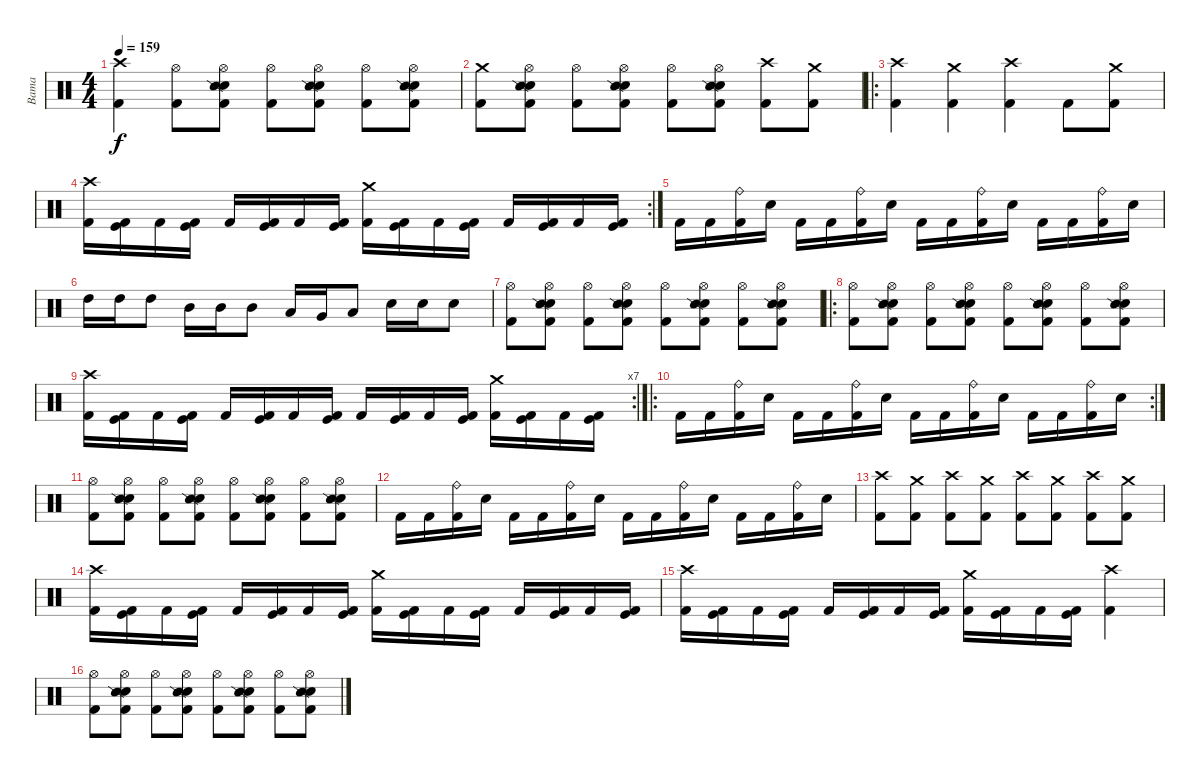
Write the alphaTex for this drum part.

\track ("Bama" "Bama") {instrument percussion}
\staff {score}
\articulation defaults
\ts (4 4)
\tempo 159
\clef neutral
\ks c
("Crash high (hit)" "Kick (hit) 2").4{dy f} ("Hi-Hat (open)" "Kick (hit) 2").8 ("Hi-Hat (open)" "Electric Snare (hit)" "Snare (side stick) 2" "Kick (hit) 2").8 ("Hi-Hat (open)" "Kick (hit) 2").8 ("Hi-Hat (open)" "Electric Snare (hit)" "Snare (side stick) 2" "Kick (hit) 2").8 ("Hi-Hat (open)" "Kick (hit) 2").8 ("Hi-Hat (open)" "Electric Snare (hit)" "Snare (side stick) 2" "Kick (hit) 2").8 |
("Crash medium (hit)" "Kick (hit) 2").8 ("Hi-Hat (open)" "Electric Snare (hit)" "Snare (side stick) 2" "Kick (hit) 2").8 ("Hi-Hat (open)" "Kick (hit) 2").8 ("Hi-Hat (open)" "Electric Snare (hit)" "Snare (side stick) 2" "Kick (hit) 2").8 ("Hi-Hat (open)" "Kick (hit) 2").8 ("Hi-Hat (open)" "Electric Snare (hit)" "Snare (side stick) 2" "Kick (hit) 2").8 ("Crash high (hit)" "Kick (hit) 2").8 ("Crash medium (hit)" "Kick (hit) 2").8 |
\ro
("Crash high (hit)" "Kick (hit) 2").4 ("Crash medium (hit)" "Kick (hit) 2").4 ("Crash high (hit)" "Kick (hit) 2").4 "Kick (hit) 2".8 ("Crash medium (hit)" "Kick (hit) 2").8 |
\rc 2
("Crash high (hit)" "Kick (hit) 2").16 ("Kick (hit)" "Kick (hit) 2").16 "Kick (hit) 2".16 ("Kick (hit)" "Kick (hit) 2").16 "Kick (hit) 2".16 ("Kick (hit)" "Kick (hit) 2").16 "Kick (hit) 2".16 ("Kick (hit)" "Kick (hit) 2").16 ("Crash medium (hit)" "Kick (hit) 2").16 ("Kick (hit)" "Kick (hit) 2").16 "Kick (hit) 2".16 ("Kick (hit)" "Kick (hit) 2").16 "Kick (hit) 2".16 ("Kick (hit)" "Kick (hit) 2").16 "Kick (hit) 2".16 ("Kick (hit)" "Kick (hit) 2").16 |
"Kick (hit) 2".16 "Kick (hit) 2".16 ("Ride (bell)" "Kick (hit) 2").16 "Electric Snare (hit)".16 "Kick (hit) 2".16 "Kick (hit) 2".16 ("Ride (bell)" "Kick (hit) 2").16 "Electric Snare (hit)".16 "Kick (hit) 2".16 "Kick (hit) 2".16 ("Ride (bell)" "Kick (hit) 2").16 "Electric Snare (hit)".16 "Kick (hit) 2".16 "Kick (hit) 2".16 ("Ride (bell)" "Kick (hit) 2").16 "Electric Snare (hit)".16 |
"High Tom (hit)".16 "High Tom (hit)".16 "High Tom (hit)".8 "Mid Tom (hit)".16 "Mid Tom (hit)".16 "Mid Tom (hit)".8 "Low Tom (hit)".16 "Very Low Tom (hit)".16 "Low Floor Tom (hit)".8 "Electric Snare (hit)".16 "Electric Snare (hit)".16 "Electric Snare (hit)".8 |
("Hi-Hat (open)" "Kick (hit) 2").8 ("Hi-Hat (open)" "Electric Snare (hit)" "Snare (side stick) 2" "Kick (hit) 2").8 ("Hi-Hat (open)" "Kick (hit) 2").8 ("Hi-Hat (open)" "Electric Snare (hit)" "Snare (side stick) 2" "Kick (hit) 2").8 ("Hi-Hat (open)" "Kick (hit) 2").8 ("Hi-Hat (open)" "Electric Snare (hit)" "Snare (side stick) 2" "Kick (hit) 2").8 ("Hi-Hat (open)" "Kick (hit) 2").8 ("Hi-Hat (open)" "Electric Snare (hit)" "Snare (side stick) 2" "Kick (hit) 2").8 |
\ro
("Hi-Hat (open)" "Kick (hit) 2").8 ("Hi-Hat (open)" "Electric Snare (hit)" "Snare (side stick) 2" "Kick (hit) 2").8 ("Hi-Hat (open)" "Kick (hit) 2").8 ("Hi-Hat (open)" "Electric Snare (hit)" "Snare (side stick) 2" "Kick (hit) 2").8 ("Hi-Hat (open)" "Kick (hit) 2").8 ("Hi-Hat (open)" "Electric Snare (hit)" "Snare (side stick) 2" "Kick (hit) 2").8 ("Hi-Hat (open)" "Kick (hit) 2").8 ("Hi-Hat (open)" "Electric Snare (hit)" "Snare (side stick) 2" "Kick (hit) 2").8 |
\rc 7
("Crash high (hit)" "Kick (hit) 2").16 ("Kick (hit)" "Kick (hit) 2").16 "Kick (hit) 2".16 ("Kick (hit)" "Kick (hit) 2").16 "Kick (hit) 2".16 ("Kick (hit)" "Kick (hit) 2").16 "Kick (hit) 2".16 ("Kick (hit)" "Kick (hit) 2").16 "Kick (hit) 2".16 ("Kick (hit)" "Kick (hit) 2").16 "Kick (hit) 2".16 ("Kick (hit)" "Kick (hit) 2").16 ("Crash medium (hit)" "Kick (hit) 2").16 ("Kick (hit)" "Kick (hit) 2").16 "Kick (hit) 2".16 ("Kick (hit)" "Kick (hit) 2").16 |
\ro
\rc 2 "Kick (hit) 2".16 "Kick (hit) 2".16
("Ride (bell)" "Kick (hit) 2").16 "Electric Snare (hit)".16 "Kick (hit) 2".16 "Kick (hit) 2".16 ("Ride (bell)" "Kick (hit) 2").16 "Electric Snare (hit)".16 "Kick (hit) 2".16 "Kick (hit) 2".16 ("Ride (bell)" "Kick (hit) 2").16 "Electric Snare (hit)".16 "Kick (hit) 2".16 "Kick (hit) 2".16 ("Ride (bell)" "Kick (hit) 2").16 "Electric Snare (hit)".16 |
("Hi-Hat (open)" "Kick (hit) 2").8 ("Hi-Hat (open)" "Electric Snare (hit)" "Snare (side stick) 2" "Kick (hit) 2").8 ("Hi-Hat (open)" "Kick (hit) 2").8 ("Hi-Hat (open)" "Electric Snare (hit)" "Snare (side stick) 2" "Kick (hit) 2").8 ("Hi-Hat (open)" "Kick (hit) 2").8 ("Hi-Hat (open)" "Electric Snare (hit)" "Snare (side stick) 2" "Kick (hit) 2").8 ("Hi-Hat (open)" "Kick (hit) 2").8 ("Hi-Hat (open)" "Electric Snare (hit)" "Snare (side stick) 2" "Kick (hit) 2").8 |
"Kick (hit) 2".16 "Kick (hit) 2".16 ("Ride (bell)" "Kick (hit) 2").16 "Electric Snare (hit)".16 "Kick (hit) 2".16 "Kick (hit) 2".16 ("Ride (bell)" "Kick (hit) 2").16 "Electric Snare (hit)".16 "Kick (hit) 2".16 "Kick (hit) 2".16 ("Ride (bell)" "Kick (hit) 2").16 "Electric Snare (hit)".16 "Kick (hit) 2".16 "Kick (hit) 2".16 ("Ride (bell)" "Kick (hit) 2").16 "Electric Snare (hit)".16 |
("Crash high (hit)" "Kick (hit) 2").8 ("Crash medium (hit)" "Kick (hit) 2").8 ("Crash high (hit)" "Kick (hit) 2").8 ("Crash medium (hit)" "Kick (hit) 2").8 ("Crash high (hit)" "Kick (hit) 2").8 ("Crash medium (hit)" "Kick (hit) 2").8 ("Crash high (hit)" "Kick (hit) 2").8 ("Crash medium (hit)" "Kick (hit) 2").8 |
("Crash high (hit)" "Kick (hit) 2").16 ("Kick (hit)" "Kick (hit) 2").16 "Kick (hit) 2".16 ("Kick (hit)" "Kick (hit) 2").16 "Kick (hit) 2".16 ("Kick (hit)" "Kick (hit) 2").16 "Kick (hit) 2".16 ("Kick (hit)" "Kick (hit) 2").16 ("Crash medium (hit)" "Kick (hit) 2").16 ("Kick (hit)" "Kick (hit) 2").16 "Kick (hit) 2".16 ("Kick (hit)" "Kick (hit) 2").16 "Kick (hit) 2".16 ("Kick (hit)" "Kick (hit) 2").16 "Kick (hit) 2".16 ("Kick (hit)" "Kick (hit) 2").16 |
("Crash high (hit)" "Kick (hit) 2").16 ("Kick (hit)" "Kick (hit) 2").16 "Kick (hit) 2".16 ("Kick (hit)" "Kick (hit) 2").16 "Kick (hit) 2".16 ("Kick (hit)" "Kick (hit) 2").16 "Kick (hit) 2".16 ("Kick (hit)" "Kick (hit) 2").16 ("Crash medium (hit)" "Kick (hit) 2").16 ("Kick (hit)" "Kick (hit) 2").16 "Kick (hit) 2".16 ("Kick (hit)" "Kick (hit) 2").16 ("Crash high (hit)" "Kick (hit) 2").4 |
("Hi-Hat (open)" "Kick (hit) 2").8 ("Hi-Hat (open)" "Electric Snare (hit)" "Snare (side stick) 2" "Kick (hit) 2").8 ("Hi-Hat (open)" "Kick (hit) 2").8 ("Hi-Hat (open)" "Electric Snare (hit)" "Snare (side stick) 2" "Kick (hit) 2").8 ("Hi-Hat (open)" "Kick (hit) 2").8 ("Hi-Hat (open)" "Electric Snare (hit)" "Snare (side stick) 2" "Kick (hit) 2").8 ("Hi-Hat (open)" "Kick (hit) 2").8 ("Hi-Hat (open)" "Electric Snare (hit)" "Snare (side stick) 2" "Kick (hit) 2").8
